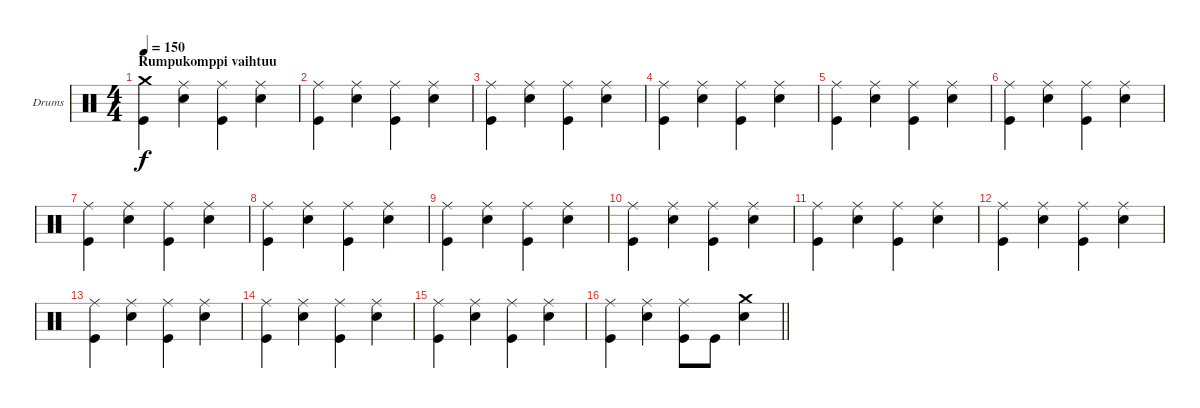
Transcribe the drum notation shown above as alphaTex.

\bracketExtendMode groupsimilarinstruments
\firstSystemTrackNameOrientation horizontal
\otherSystemsTrackNameOrientation horizontal
\track ("Drumkit" "Drums") {instrument percussion}
\staff {score}
\articulation defaults
\ts (4 4)
\section ("" "Rumpukomppi vaihtuu")
\tempo 150
\clef neutral
\ks c
("Crash medium (hit)" "Kick (hit)").4{dy f} ("Ride (middle)" "Snare (hit) 2").4 ("Ride (middle)" "Kick (hit)").4 ("Ride (middle)" "Snare (hit) 2").4 |
("Ride (middle)" "Kick (hit)").4 ("Ride (middle)" "Snare (hit) 2").4 ("Ride (middle)" "Kick (hit)").4 ("Ride (middle)" "Snare (hit) 2").4 |
("Ride (middle)" "Kick (hit)").4 ("Ride (middle)" "Snare (hit) 2").4 ("Ride (middle)" "Kick (hit)").4 ("Ride (middle)" "Snare (hit) 2").4 |
("Ride (middle)" "Kick (hit)").4 ("Ride (middle)" "Snare (hit) 2").4 ("Ride (middle)" "Kick (hit)").4 ("Ride (middle)" "Snare (hit) 2").4 |
("Ride (middle)" "Kick (hit)").4 ("Ride (middle)" "Snare (hit) 2").4 ("Ride (middle)" "Kick (hit)").4 ("Ride (middle)" "Snare (hit) 2").4 |
("Ride (middle)" "Kick (hit)").4 ("Ride (middle)" "Snare (hit) 2").4 ("Ride (middle)" "Kick (hit)").4 ("Ride (middle)" "Snare (hit) 2").4 |
("Ride (middle)" "Kick (hit)").4 ("Ride (middle)" "Snare (hit) 2").4 ("Ride (middle)" "Kick (hit)").4 ("Ride (middle)" "Snare (hit) 2").4 |
("Ride (middle)" "Kick (hit)").4 ("Ride (middle)" "Snare (hit) 2").4 ("Ride (middle)" "Kick (hit)").4 ("Ride (middle)" "Snare (hit) 2").4 |
("Ride (middle)" "Kick (hit)").4 ("Ride (middle)" "Snare (hit) 2").4 ("Ride (middle)" "Kick (hit)").4 ("Ride (middle)" "Snare (hit) 2").4 |
("Ride (middle)" "Kick (hit)").4 ("Ride (middle)" "Snare (hit) 2").4 ("Ride (middle)" "Kick (hit)").4 ("Ride (middle)" "Snare (hit) 2").4 |
("Ride (middle)" "Kick (hit)").4 ("Ride (middle)" "Snare (hit) 2").4 ("Ride (middle)" "Kick (hit)").4 ("Ride (middle)" "Snare (hit) 2").4 |
("Ride (middle)" "Kick (hit)").4 ("Ride (middle)" "Snare (hit) 2").4 ("Ride (middle)" "Kick (hit)").4 ("Ride (middle)" "Snare (hit) 2").4 |
("Ride (middle)" "Kick (hit)").4 ("Ride (middle)" "Snare (hit) 2").4 ("Ride (middle)" "Kick (hit)").4 ("Ride (middle)" "Snare (hit) 2").4 |
("Ride (middle)" "Kick (hit)").4 ("Ride (middle)" "Snare (hit) 2").4 ("Ride (middle)" "Kick (hit)").4 ("Ride (middle)" "Snare (hit) 2").4 |
("Ride (middle)" "Kick (hit)").4 ("Ride (middle)" "Snare (hit) 2").4 ("Ride (middle)" "Kick (hit)").4 ("Ride (middle)" "Snare (hit) 2").4 |
\barLineRight lightlight
("Ride (middle)" "Kick (hit)").4 ("Ride (middle)" "Snare (hit) 2").4 ("Ride (middle)" "Kick (hit)").8 "Kick (hit)".8 ("Crash medium (hit)" "Snare (hit) 2").4
